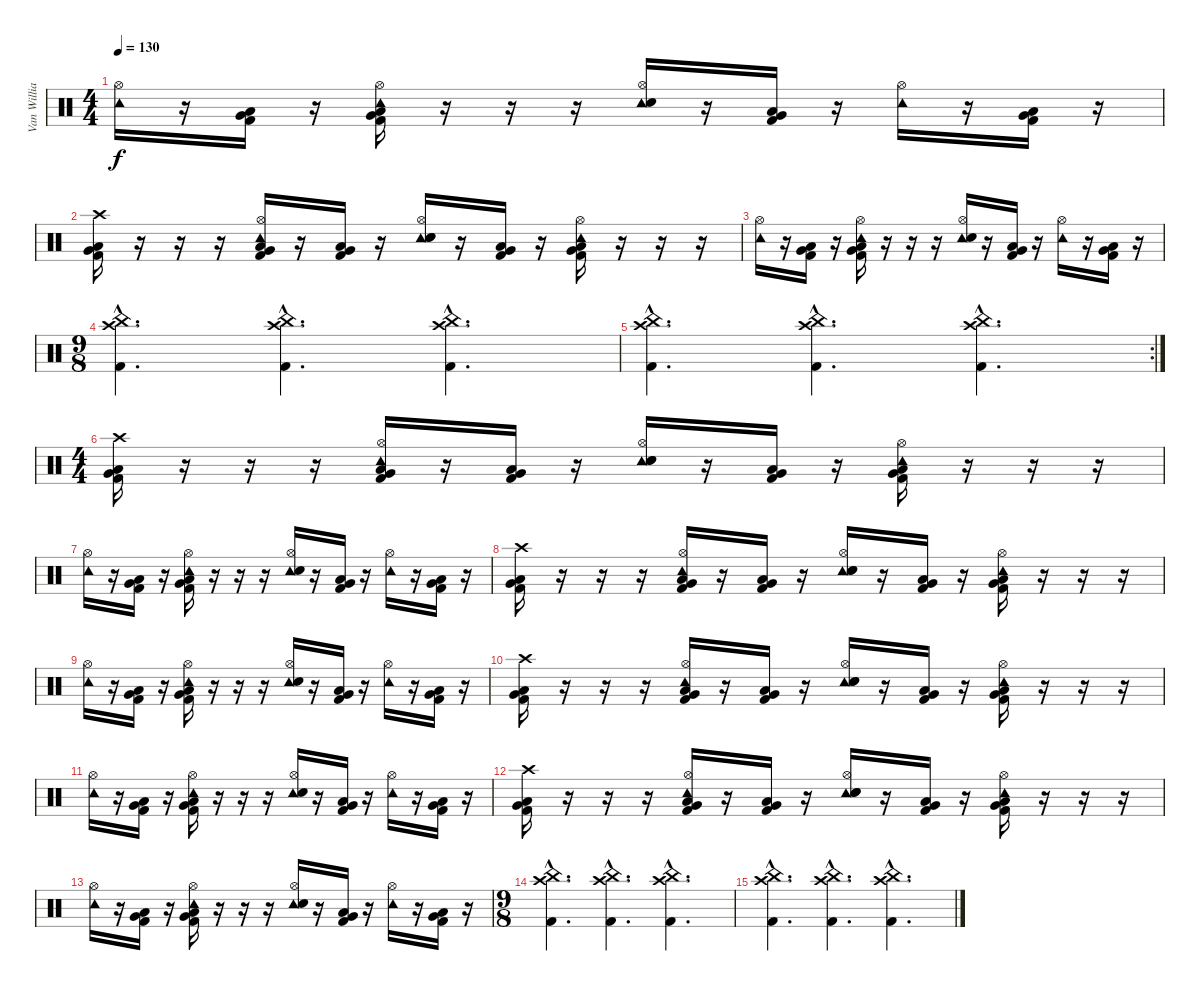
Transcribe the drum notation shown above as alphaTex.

\track ("Van Williams" "Van Willia") {instrument percussion}
\staff {score}
\articulation defaults
\ts (4 4)
\tempo 130
\clef neutral
\ks c
("Tambourine (hit)" "Hi-Hat (open)").16{dy f} r.16 ("Kick (hit) 2" "Very Low Tom (hit)" "Low Floor Tom (hit)").16 r.16 ("Tambourine (hit)" "Hi-Hat (open)" "Kick (hit) 2" "Very Low Tom (hit)" "Low Floor Tom (hit)").16 r.16 r.16 r.16 ("Tambourine (hit)" "Hi-Hat (open)" "Electric Snare (hit)").16 r.16 ("Kick (hit) 2" "Very Low Tom (hit)" "Low Floor Tom (hit)").16 r.16 ("Tambourine (hit)" "Hi-Hat (open)").16 r.16 ("Kick (hit) 2" "Very Low Tom (hit)" "Low Floor Tom (hit)").16 r.16 |
("Crash high (hit)" "Kick (hit) 2" "Very Low Tom (hit)" "Low Floor Tom (hit)").16 r.16 r.16 r.16 ("Tambourine (hit)" "Hi-Hat (open)" "Kick (hit) 2" "Very Low Tom (hit)" "Low Floor Tom (hit)").16 r.16 ("Kick (hit) 2" "Very Low Tom (hit)" "Low Floor Tom (hit)").16 r.16 ("Tambourine (hit)" "Hi-Hat (open)" "Electric Snare (hit)" "Electric Snare (hit)").16 r.16 ("Kick (hit) 2" "Very Low Tom (hit)" "Low Floor Tom (hit)").16 r.16 ("Tambourine (hit)" "Hi-Hat (open)" "Kick (hit) 2" "Very Low Tom (hit)" "Low Floor Tom (hit)").16 r.16 r.16 r.16 |
("Tambourine (hit)" "Hi-Hat (open)").16 r.16 ("Kick (hit) 2" "Very Low Tom (hit)" "Low Floor Tom (hit)").16 r.16 ("Tambourine (hit)" "Hi-Hat (open)" "Kick (hit) 2" "Very Low Tom (hit)" "Low Floor Tom (hit)").16 r.16 r.16 r.16 ("Tambourine (hit)" "Hi-Hat (open)" "Electric Snare (hit)").16 r.16 ("Kick (hit) 2" "Very Low Tom (hit)" "Low Floor Tom (hit)").16 r.16 ("Tambourine (hit)" "Hi-Hat (open)").16 r.16 ("Kick (hit) 2" "Very Low Tom (hit)" "Low Floor Tom (hit)").16 r.16 |
\ts (9 8)
("China (hit)"{hac} "Crash high (hit)"{hac} "Kick (hit) 2"{hac}).4{d} ("China (hit)"{hac} "Crash high (hit)"{hac} "Kick (hit) 2"{hac}).4{d} ("China (hit)"{hac} "Crash high (hit)"{hac} "Kick (hit) 2"{hac}).4{d} |
\rc 2
("China (hit)"{hac} "Crash high (hit)"{hac} "Kick (hit) 2"{hac}).4{d} ("China (hit)"{hac} "Crash high (hit)"{hac} "Kick (hit) 2"{hac}).4{d} ("China (hit)"{hac} "Crash high (hit)"{hac} "Kick (hit) 2"{hac}).4{d} |
\ts (4 4)
("Crash high (hit)" "Kick (hit) 2" "Very Low Tom (hit)" "Low Floor Tom (hit)").16 r.16 r.16 r.16 ("Tambourine (hit)" "Hi-Hat (open)" "Kick (hit) 2" "Very Low Tom (hit)" "Low Floor Tom (hit)").16 r.16 ("Kick (hit) 2" "Very Low Tom (hit)" "Low Floor Tom (hit)").16 r.16 ("Tambourine (hit)" "Hi-Hat (open)" "Electric Snare (hit)" "Electric Snare (hit)").16 r.16 ("Kick (hit) 2" "Very Low Tom (hit)" "Low Floor Tom (hit)").16 r.16 ("Tambourine (hit)" "Hi-Hat (open)" "Kick (hit) 2" "Very Low Tom (hit)" "Low Floor Tom (hit)").16 r.16 r.16 r.16 |
("Tambourine (hit)" "Hi-Hat (open)").16 r.16 ("Kick (hit) 2" "Very Low Tom (hit)" "Low Floor Tom (hit)").16 r.16 ("Tambourine (hit)" "Hi-Hat (open)" "Kick (hit) 2" "Very Low Tom (hit)" "Low Floor Tom (hit)").16 r.16 r.16 r.16 ("Tambourine (hit)" "Hi-Hat (open)" "Electric Snare (hit)").16 r.16 ("Kick (hit) 2" "Very Low Tom (hit)" "Low Floor Tom (hit)").16 r.16 ("Tambourine (hit)" "Hi-Hat (open)").16 r.16 ("Kick (hit) 2" "Very Low Tom (hit)" "Low Floor Tom (hit)").16 r.16 |
("Crash high (hit)" "Kick (hit) 2" "Very Low Tom (hit)" "Low Floor Tom (hit)").16 r.16 r.16 r.16 ("Tambourine (hit)" "Hi-Hat (open)" "Kick (hit) 2" "Very Low Tom (hit)" "Low Floor Tom (hit)").16 r.16 ("Kick (hit) 2" "Very Low Tom (hit)" "Low Floor Tom (hit)").16 r.16 ("Tambourine (hit)" "Hi-Hat (open)" "Electric Snare (hit)" "Electric Snare (hit)").16 r.16 ("Kick (hit) 2" "Very Low Tom (hit)" "Low Floor Tom (hit)").16 r.16 ("Tambourine (hit)" "Hi-Hat (open)" "Kick (hit) 2" "Very Low Tom (hit)" "Low Floor Tom (hit)").16 r.16 r.16 r.16 |
("Tambourine (hit)" "Hi-Hat (open)").16 r.16 ("Kick (hit) 2" "Very Low Tom (hit)" "Low Floor Tom (hit)").16 r.16 ("Tambourine (hit)" "Hi-Hat (open)" "Kick (hit) 2" "Very Low Tom (hit)" "Low Floor Tom (hit)").16 r.16 r.16 r.16 ("Tambourine (hit)" "Hi-Hat (open)" "Electric Snare (hit)").16 r.16 ("Kick (hit) 2" "Very Low Tom (hit)" "Low Floor Tom (hit)").16 r.16 ("Tambourine (hit)" "Hi-Hat (open)").16 r.16 ("Kick (hit) 2" "Very Low Tom (hit)" "Low Floor Tom (hit)").16 r.16 |
("Crash high (hit)" "Kick (hit) 2" "Very Low Tom (hit)" "Low Floor Tom (hit)").16 r.16 r.16 r.16 ("Tambourine (hit)" "Hi-Hat (open)" "Kick (hit) 2" "Very Low Tom (hit)" "Low Floor Tom (hit)").16 r.16 ("Kick (hit) 2" "Very Low Tom (hit)" "Low Floor Tom (hit)").16 r.16 ("Tambourine (hit)" "Hi-Hat (open)" "Electric Snare (hit)" "Electric Snare (hit)").16 r.16 ("Kick (hit) 2" "Very Low Tom (hit)" "Low Floor Tom (hit)").16 r.16 ("Tambourine (hit)" "Hi-Hat (open)" "Kick (hit) 2" "Very Low Tom (hit)" "Low Floor Tom (hit)").16 r.16 r.16 r.16 |
("Tambourine (hit)" "Hi-Hat (open)").16 r.16 ("Kick (hit) 2" "Very Low Tom (hit)" "Low Floor Tom (hit)").16 r.16 ("Tambourine (hit)" "Hi-Hat (open)" "Kick (hit) 2" "Very Low Tom (hit)" "Low Floor Tom (hit)").16 r.16 r.16 r.16 ("Tambourine (hit)" "Hi-Hat (open)" "Electric Snare (hit)").16 r.16 ("Kick (hit) 2" "Very Low Tom (hit)" "Low Floor Tom (hit)").16 r.16 ("Tambourine (hit)" "Hi-Hat (open)").16 r.16 ("Kick (hit) 2" "Very Low Tom (hit)" "Low Floor Tom (hit)").16 r.16 |
("Crash high (hit)" "Kick (hit) 2" "Very Low Tom (hit)" "Low Floor Tom (hit)").16 r.16 r.16 r.16 ("Tambourine (hit)" "Hi-Hat (open)" "Kick (hit) 2" "Very Low Tom (hit)" "Low Floor Tom (hit)").16 r.16 ("Kick (hit) 2" "Very Low Tom (hit)" "Low Floor Tom (hit)").16 r.16 ("Tambourine (hit)" "Hi-Hat (open)" "Electric Snare (hit)" "Electric Snare (hit)").16 r.16 ("Kick (hit) 2" "Very Low Tom (hit)" "Low Floor Tom (hit)").16 r.16 ("Tambourine (hit)" "Hi-Hat (open)" "Kick (hit) 2" "Very Low Tom (hit)" "Low Floor Tom (hit)").16 r.16 r.16 r.16 |
("Tambourine (hit)" "Hi-Hat (open)").16 r.16 ("Kick (hit) 2" "Very Low Tom (hit)" "Low Floor Tom (hit)").16 r.16 ("Tambourine (hit)" "Hi-Hat (open)" "Kick (hit) 2" "Very Low Tom (hit)" "Low Floor Tom (hit)").16 r.16 r.16 r.16 ("Tambourine (hit)" "Hi-Hat (open)" "Electric Snare (hit)").16 r.16 ("Kick (hit) 2" "Very Low Tom (hit)" "Low Floor Tom (hit)").16 r.16 ("Tambourine (hit)" "Hi-Hat (open)").16 r.16 ("Kick (hit) 2" "Very Low Tom (hit)" "Low Floor Tom (hit)").16 r.16 |
\ts (9 8)
("China (hit)"{hac} "Crash high (hit)"{hac} "Kick (hit) 2"{hac}).4{d} ("China (hit)"{hac} "Crash high (hit)"{hac} "Kick (hit) 2"{hac}).4{d} ("China (hit)"{hac} "Crash high (hit)"{hac} "Kick (hit) 2"{hac}).4{d} |
("China (hit)"{hac} "Crash high (hit)"{hac} "Kick (hit) 2"{hac}).4{d} ("China (hit)"{hac} "Crash high (hit)"{hac} "Kick (hit) 2"{hac}).4{d} ("China (hit)"{hac} "Crash high (hit)"{hac} "Kick (hit) 2"{hac}).4{d}
